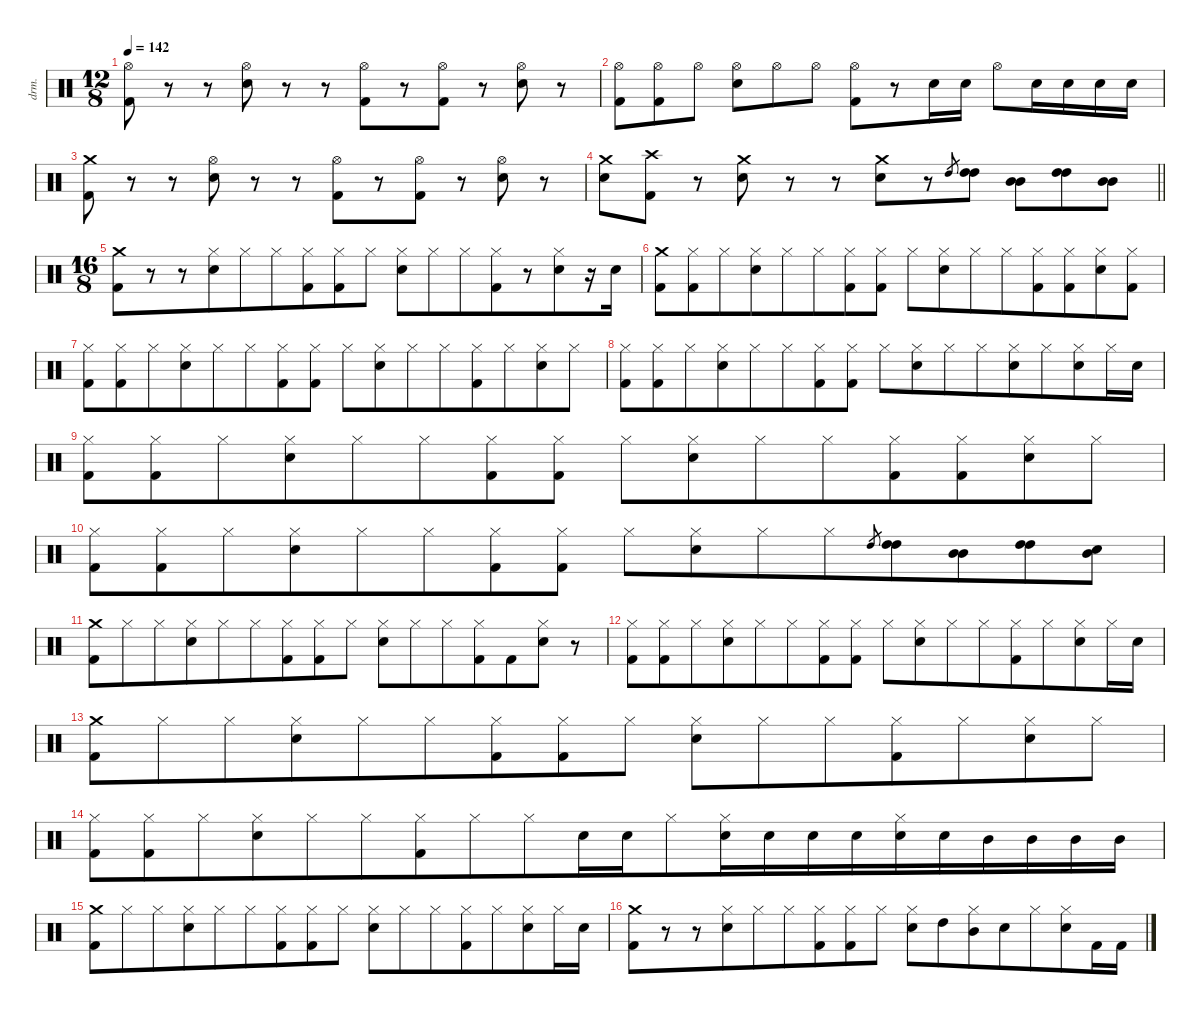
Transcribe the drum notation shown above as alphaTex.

\defaultSystemsLayout 4
\hideDynamics
\bracketExtendMode nobrackets
\otherSystemsTrackNameOrientation horizontal
\track ("Drums" "drm.") {instrument percussion}
\staff {score}
\articulation defaults
\ts (12 8)
\beaming (8 3 3 3 3)
\tempo 142
\clef neutral
\ks c
("Hi-Hat (open)" "Kick (hit) 2").8{dy f beam Down} r.8{beam Down} r.8{beam Down} ("Hi-Hat (open)" "Snare (hit) 2").8{beam Down} r.8{beam Down} r.8{beam Down} ("Hi-Hat (open)" "Kick (hit) 2").8{beam Down beam merge} r.8{beam Down beam split} ("Hi-Hat (open)" "Kick (hit) 2").8{beam Down} r.8{beam Down} ("Hi-Hat (open)" "Snare (hit) 2").8{beam Down} r.8{beam Down} |
("Hi-Hat (open)" "Kick (hit) 2").8{beam Down} ("Hi-Hat (open)" "Kick (hit) 2").8{beam Down} "Hi-Hat (open)".8{beam Down} ("Hi-Hat (open)" "Snare (hit) 2").8{beam Down} "Hi-Hat (open)".8{beam Down} "Hi-Hat (open)".8{beam Down} ("Hi-Hat (open)" "Kick (hit) 2").8{beam Down beam merge} r.8{beam Down} "Snare (hit) 2".16{beam Down} "Snare (hit) 2".16{beam Down} "Hi-Hat (open)".8{beam Down} "Snare (hit) 2".16{beam Down} "Snare (hit) 2".16{beam Down} "Snare (hit) 2".16{beam Down} "Snare (hit) 2".16{beam Down} |
("Crash medium (hit)" "Kick (hit) 2").8{beam Down} r.8{beam Down} r.8{beam Down} ("Hi-Hat (open)" "Snare (hit) 2").8{beam Down} r.8{beam Down} r.8{beam Down} ("Hi-Hat (open)" "Kick (hit) 2").8{beam Down beam merge} r.8{beam Down beam split} ("Hi-Hat (open)" "Kick (hit) 2").8{beam Down} r.8{beam Down} ("Hi-Hat (open)" "Snare (hit) 2").8{beam Down} r.8{beam Down} |
\barLineRight lightlight
("Crash medium (hit)" "Snare (hit) 2").8{beam Down} ("Crash high (hit)" "Kick (hit) 2").8{beam Down} r.8{beam Down} ("Crash medium (hit)" "Snare (hit) 2").8{beam Down} r.8{beam Down} r.8{beam Down} ("Crash medium (hit)" "Snare (hit) 2").8{beam Down beam merge} r.8{beam Down} "High Tom (hit)".8{gr dy mf beam Up beam split} ("High Tom (hit)" "High Tom (hit)").8{dy f beam Down} ("Mid Tom (hit)" "Mid Tom (hit)").8{beam Down} ("High Tom (hit)" "High Tom (hit)").8{beam Down} ("Mid Tom (hit)" "Mid Tom (hit)").8{beam Down} |
\ts (16 8)
\beaming (8 16)
("Crash medium (hit)" "Kick (hit) 2").8{beam Down beam merge} r.8{beam Down beam merge} r.8{beam Down} ("Hi-Hat (closed)" "Snare (hit) 2").8{beam Down beam merge} "Hi-Hat (closed)".8{beam Down beam merge} "Hi-Hat (closed)".8{beam Down} ("Hi-Hat (closed)" "Kick (hit) 2").8{beam Down beam merge} ("Hi-Hat (closed)" "Kick (hit) 2").8{beam Down beam merge} "Hi-Hat (closed)".8{beam Down beam split} ("Hi-Hat (closed)" "Snare (hit) 2").8{beam Down beam merge} "Hi-Hat (closed)".8{beam Down beam merge} "Hi-Hat (closed)".8{beam Down} ("Hi-Hat (closed)" "Kick (hit) 2").8{beam Down} r.8{beam Down} ("Hi-Hat (closed)" "Snare (hit) 2").8{beam Down} r.16{beam Down} "Snare (hit) 2".16{beam Down} |
("Crash medium (hit)" "Kick (hit) 2").8{beam Down beam merge} ("Hi-Hat (closed)" "Kick (hit) 2").8{beam Down beam merge} "Hi-Hat (closed)".8{beam Down} ("Hi-Hat (closed)" "Snare (hit) 2").8{beam Down beam merge} "Hi-Hat (closed)".8{beam Down beam merge} "Hi-Hat (closed)".8{beam Down} ("Hi-Hat (closed)" "Kick (hit) 2").8{beam Down beam merge} ("Hi-Hat (closed)" "Kick (hit) 2").8{beam Down beam split} "Hi-Hat (closed)".8{beam Down beam merge} ("Hi-Hat (closed)" "Snare (hit) 2").8{beam Down} "Hi-Hat (closed)".8{beam Down} "Hi-Hat (closed)".8{beam Down} ("Hi-Hat (closed)" "Kick (hit) 2").8{beam Down} ("Hi-Hat (closed)" "Kick (hit) 2").8{beam Down} ("Hi-Hat (closed)" "Snare (hit) 2").8{beam Down} ("Hi-Hat (closed)" "Kick (hit) 2").8{beam Down} |
("Hi-Hat (closed)" "Kick (hit) 2").8{beam Down beam merge} ("Hi-Hat (closed)" "Kick (hit) 2").8{beam Down beam merge} "Hi-Hat (closed)".8{beam Down} ("Hi-Hat (closed)" "Snare (hit) 2").8{beam Down beam merge} "Hi-Hat (closed)".8{beam Down beam merge} "Hi-Hat (closed)".8{beam Down} ("Hi-Hat (closed)" "Kick (hit) 2").8{beam Down beam merge} ("Hi-Hat (closed)" "Kick (hit) 2").8{beam Down beam split} "Hi-Hat (closed)".8{beam Down beam merge} ("Hi-Hat (closed)" "Snare (hit) 2").8{beam Down} "Hi-Hat (closed)".8{beam Down} "Hi-Hat (closed)".8{beam Down} ("Hi-Hat (closed)" "Kick (hit) 2").8{beam Down} "Hi-Hat (closed)".8{beam Down} ("Hi-Hat (closed)" "Snare (hit) 2").8{beam Down} "Hi-Hat (closed)".8{beam Down} |
("Hi-Hat (closed)" "Kick (hit) 2").8{beam Down beam merge} ("Hi-Hat (closed)" "Kick (hit) 2").8{beam Down beam merge} "Hi-Hat (closed)".8{beam Down} ("Hi-Hat (closed)" "Snare (hit) 2").8{beam Down beam merge} "Hi-Hat (closed)".8{beam Down beam merge} "Hi-Hat (closed)".8{beam Down} ("Hi-Hat (closed)" "Kick (hit) 2").8{beam Down beam merge} ("Hi-Hat (closed)" "Kick (hit) 2").8{beam Down beam split} "Hi-Hat (closed)".8{beam Down beam merge} ("Hi-Hat (closed)" "Snare (hit) 2").8{beam Down} "Hi-Hat (closed)".8{beam Down} "Hi-Hat (closed)".8{beam Down} ("Hi-Hat (closed)" "Snare (hit) 2").8{beam Down} "Hi-Hat (closed)".8{beam Down} ("Hi-Hat (closed)" "Snare (hit) 2").8{beam Down} "Hi-Hat (closed)".16{beam Down} "Snare (hit) 2".16{beam Down} |
("Hi-Hat (closed)" "Kick (hit) 2").8{beam Down beam merge} ("Hi-Hat (closed)" "Kick (hit) 2").8{beam Down beam merge} "Hi-Hat (closed)".8{beam Down} ("Hi-Hat (closed)" "Snare (hit) 2").8{beam Down beam merge} "Hi-Hat (closed)".8{beam Down beam merge} "Hi-Hat (closed)".8{beam Down} ("Hi-Hat (closed)" "Kick (hit) 2").8{beam Down beam merge} ("Hi-Hat (closed)" "Kick (hit) 2").8{beam Down beam split} "Hi-Hat (closed)".8{beam Down beam merge} ("Hi-Hat (closed)" "Snare (hit) 2").8{beam Down} "Hi-Hat (closed)".8{beam Down} "Hi-Hat (closed)".8{beam Down} ("Hi-Hat (closed)" "Kick (hit) 2").8{beam Down} ("Hi-Hat (closed)" "Kick (hit) 2").8{beam Down} ("Hi-Hat (closed)" "Snare (hit) 2").8{beam Down} "Hi-Hat (closed)".8{beam Down} |
("Hi-Hat (closed)" "Kick (hit) 2").8{beam Down beam merge} ("Hi-Hat (closed)" "Kick (hit) 2").8{beam Down beam merge} "Hi-Hat (closed)".8{beam Down} ("Hi-Hat (closed)" "Snare (hit) 2").8{beam Down beam merge} "Hi-Hat (closed)".8{beam Down beam merge} "Hi-Hat (closed)".8{beam Down} ("Hi-Hat (closed)" "Kick (hit) 2").8{beam Down beam merge} ("Hi-Hat (closed)" "Kick (hit) 2").8{beam Down beam split} "Hi-Hat (closed)".8{beam Down beam merge} ("Hi-Hat (closed)" "Snare (hit) 2").8{beam Down} "Hi-Hat (closed)".8{beam Down} "Hi-Hat (closed)".8{beam Down} "High Tom (hit)".8{gr dy mf beam Up beam split} ("High Tom (hit)" "High Tom (hit)").8{dy f beam Down} ("Mid Tom (hit)" "Mid Tom (hit)").8{beam Down} ("High Tom (hit)" "High Tom (hit)").8{beam Down} ("Snare (hit) 2" "Mid Tom (hit)").8{beam Down} |
("Crash medium (hit)" "Kick (hit) 2").8{beam Down beam merge} "Hi-Hat (closed)".8{beam Down beam merge} "Hi-Hat (closed)".8{beam Down} ("Hi-Hat (closed)" "Snare (hit) 2").8{beam Down beam merge} "Hi-Hat (closed)".8{beam Down beam merge} "Hi-Hat (closed)".8{beam Down} ("Hi-Hat (closed)" "Kick (hit) 2").8{beam Down beam merge} ("Hi-Hat (closed)" "Kick (hit) 2").8{beam Down beam merge} "Hi-Hat (closed)".8{beam Down beam split} ("Hi-Hat (closed)" "Snare (hit) 2").8{beam Down beam merge} "Hi-Hat (closed)".8{beam Down beam merge} "Hi-Hat (closed)".8{beam Down} ("Hi-Hat (closed)" "Kick (hit) 2").8{beam Down} "Kick (hit) 2".8{beam Down} ("Hi-Hat (closed)" "Snare (hit) 2").8{beam Down} r.8{beam Down} |
("Hi-Hat (closed)" "Kick (hit) 2").8{beam Down beam merge} ("Hi-Hat (closed)" "Kick (hit) 2").8{beam Down beam merge} "Hi-Hat (closed)".8{beam Down} ("Hi-Hat (closed)" "Snare (hit) 2").8{beam Down beam merge} "Hi-Hat (closed)".8{beam Down beam merge} "Hi-Hat (closed)".8{beam Down} ("Hi-Hat (closed)" "Kick (hit) 2").8{beam Down beam merge} ("Hi-Hat (closed)" "Kick (hit) 2").8{beam Down beam split} "Hi-Hat (closed)".8{beam Down beam merge} ("Hi-Hat (closed)" "Snare (hit) 2").8{beam Down} "Hi-Hat (closed)".8{beam Down} "Hi-Hat (closed)".8{beam Down} ("Hi-Hat (closed)" "Kick (hit) 2").8{beam Down} "Hi-Hat (closed)".8{beam Down} ("Hi-Hat (closed)" "Snare (hit) 2").8{beam Down} "Hi-Hat (closed)".16{beam Down} "Snare (hit) 2".16{beam Down} |
("Crash medium (hit)" "Kick (hit) 2").8{beam Down beam merge} "Hi-Hat (closed)".8{beam Down beam merge} "Hi-Hat (closed)".8{beam Down} ("Hi-Hat (closed)" "Snare (hit) 2").8{beam Down beam merge} "Hi-Hat (closed)".8{beam Down beam merge} "Hi-Hat (closed)".8{beam Down} ("Hi-Hat (closed)" "Kick (hit) 2").8{beam Down beam merge} ("Hi-Hat (closed)" "Kick (hit) 2").8{beam Down beam merge} "Hi-Hat (closed)".8{beam Down beam split} ("Hi-Hat (closed)" "Snare (hit) 2").8{beam Down beam merge} "Hi-Hat (closed)".8{beam Down beam merge} "Hi-Hat (closed)".8{beam Down} ("Hi-Hat (closed)" "Kick (hit) 2").8{beam Down} "Hi-Hat (closed)".8{beam Down} ("Hi-Hat (closed)" "Snare (hit) 2").8{beam Down} "Hi-Hat (closed)".8{beam Down} |
("Hi-Hat (closed)" "Kick (hit) 2").8{beam Down beam merge} ("Hi-Hat (closed)" "Kick (hit) 2").8{beam Down beam merge} "Hi-Hat (closed)".8{beam Down} ("Hi-Hat (closed)" "Snare (hit) 2").8{beam Down beam merge} "Hi-Hat (closed)".8{beam Down beam merge} "Hi-Hat (closed)".8{beam Down} ("Hi-Hat (closed)" "Kick (hit) 2").8{beam Down beam merge} "Hi-Hat (closed)".8{beam Down beam merge} "Hi-Hat (closed)".8{beam Down} "Snare (hit) 2".16{beam Down} "Snare (hit) 2".16{beam Down beam merge} "Hi-Hat (closed)".8{beam Down} ("Hi-Hat (closed)" "Snare (hit) 2").16{beam Down} "Snare (hit) 2".16{beam Down} "Snare (hit) 2".16{beam Down} "Snare (hit) 2".16{beam Down} ("Hi-Hat (closed)" "Snare (hit) 2").16{beam Down} "Snare (hit) 2".16{beam Down} "Mid Tom (hit)".16{beam Down} "Mid Tom (hit)".16{beam Down} "Mid Tom (hit)".16{beam Down} "Mid Tom (hit)".16{beam Down} |
("Crash medium (hit)" "Kick (hit) 2").8{beam Down beam merge} "Hi-Hat (closed)".8{beam Down beam merge} "Hi-Hat (closed)".8{beam Down} ("Hi-Hat (closed)" "Snare (hit) 2").8{beam Down beam merge} "Hi-Hat (closed)".8{beam Down beam merge} "Hi-Hat (closed)".8{beam Down} ("Hi-Hat (closed)" "Kick (hit) 2").8{beam Down beam merge} ("Hi-Hat (closed)" "Kick (hit) 2").8{beam Down beam merge} "Hi-Hat (closed)".8{beam Down beam split} ("Hi-Hat (closed)" "Snare (hit) 2").8{beam Down beam merge} "Hi-Hat (closed)".8{beam Down beam merge} "Hi-Hat (closed)".8{beam Down} ("Hi-Hat (closed)" "Kick (hit) 2").8{beam Down} "Hi-Hat (closed)".8{beam Down} ("Hi-Hat (closed)" "Snare (hit) 2").8{beam Down} "Hi-Hat (closed)".16{beam Down} "Snare (hit) 2".16{beam Down} |
("Crash medium (hit)" "Kick (hit) 2").8{beam Down beam merge} r.8{beam Down beam merge} r.8{beam Down} ("Hi-Hat (closed)" "Snare (hit) 2").8{beam Down beam merge} "Hi-Hat (closed)".8{beam Down beam merge} "Hi-Hat (closed)".8{beam Down} ("Hi-Hat (closed)" "Kick (hit) 2").8{beam Down beam merge} ("Hi-Hat (closed)" "Kick (hit) 2").8{beam Down beam merge} "Hi-Hat (closed)".8{beam Down beam split} ("Hi-Hat (closed)" "Snare (hit) 2").8{beam Down beam merge} "High Tom (hit)".8{beam Down beam merge} ("Hi-Hat (closed)" "Mid Tom (hit)").8{beam Down} "Snare (hit) 2".8{beam Down} "Hi-Hat (closed)".8{beam Down} ("Hi-Hat (closed)" "Snare (hit) 2").8{beam Down} "Kick (hit) 2".16{dy fff beam Down} "Kick (hit) 2".16{beam Down}
